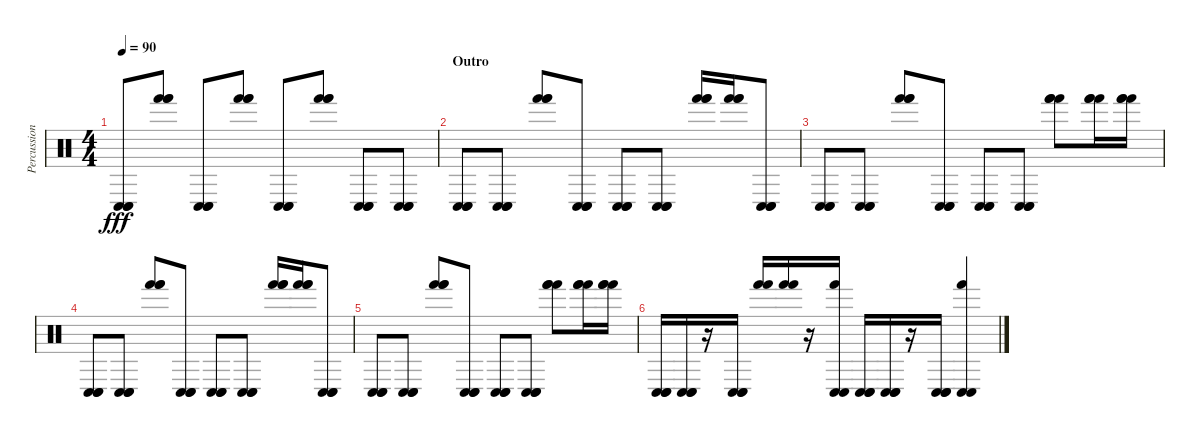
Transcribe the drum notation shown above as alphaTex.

\track ("Percussion" "Percussion") {instrument percussion}
\staff {score}
\articulation defaults
\ts (4 4)
\tempo 90
\clef neutral
\ks c
("Conga low (hit)" "Conga low (hit)" "Conga low (hit)").8{dy fff} ("Hand (hit)" "Hand (hit)" "Hand (hit)").8 ("Conga low (hit)" "Conga low (hit)" "Conga low (hit)").8 ("Hand (hit)" "Hand (hit)" "Hand (hit)").8 ("Conga low (hit)" "Conga low (hit)" "Conga low (hit)").8 ("Hand (hit)" "Hand (hit)" "Hand (hit)").8 ("Conga low (hit)" "Conga low (hit)" "Conga low (hit)").8 ("Conga low (hit)" "Conga low (hit)" "Conga low (hit)").8 |
\section ("" "Outro")
("Conga low (hit)" "Conga low (hit)" "Conga low (hit)").8 ("Conga low (hit)" "Conga low (hit)" "Conga low (hit)").8 ("Hand (hit)" "Hand (hit)" "Hand (hit)").8 ("Conga low (hit)" "Conga low (hit)" "Conga low (hit)").8 ("Conga low (hit)" "Conga low (hit)" "Conga low (hit)").8 ("Conga low (hit)" "Conga low (hit)" "Conga low (hit)").8 ("Hand (hit)" "Hand (hit)" "Hand (hit)").16 ("Hand (hit)" "Hand (hit)" "Hand (hit)").16 ("Conga low (hit)" "Conga low (hit)" "Conga low (hit)").8 |
("Conga low (hit)" "Conga low (hit)" "Conga low (hit)").8 ("Conga low (hit)" "Conga low (hit)" "Conga low (hit)").8 ("Hand (hit)" "Hand (hit)" "Hand (hit)").8 ("Conga low (hit)" "Conga low (hit)" "Conga low (hit)").8 ("Conga low (hit)" "Conga low (hit)" "Conga low (hit)").8 ("Conga low (hit)" "Conga low (hit)" "Conga low (hit)").8 ("Hand (hit)" "Hand (hit)" "Hand (hit)").8 ("Hand (hit)" "Hand (hit)" "Hand (hit)").16 ("Hand (hit)" "Hand (hit)" "Hand (hit)").16 |
("Conga low (hit)" "Conga low (hit)" "Conga low (hit)").8 ("Conga low (hit)" "Conga low (hit)" "Conga low (hit)").8 ("Hand (hit)" "Hand (hit)" "Hand (hit)").8 ("Conga low (hit)" "Conga low (hit)" "Conga low (hit)").8 ("Conga low (hit)" "Conga low (hit)" "Conga low (hit)").8 ("Conga low (hit)" "Conga low (hit)" "Conga low (hit)").8 ("Hand (hit)" "Hand (hit)" "Hand (hit)").16 ("Hand (hit)" "Hand (hit)" "Hand (hit)").16 ("Conga low (hit)" "Conga low (hit)" "Conga low (hit)").8 |
("Conga low (hit)" "Conga low (hit)" "Conga low (hit)").8 ("Conga low (hit)" "Conga low (hit)" "Conga low (hit)").8 ("Hand (hit)" "Hand (hit)" "Hand (hit)").8 ("Conga low (hit)" "Conga low (hit)" "Conga low (hit)").8 ("Conga low (hit)" "Conga low (hit)" "Conga low (hit)").8 ("Conga low (hit)" "Conga low (hit)" "Conga low (hit)").8 ("Hand (hit)" "Hand (hit)" "Hand (hit)").8 ("Hand (hit)" "Hand (hit)" "Hand (hit)").16 ("Hand (hit)" "Hand (hit)" "Hand (hit)").16 |
("Conga low (hit)" "Conga low (hit)" "Conga low (hit)").16 ("Conga low (hit)" "Conga low (hit)" "Conga low (hit)").16 r.16 ("Conga low (hit)" "Conga low (hit)" "Conga low (hit)").16 ("Hand (hit)" "Hand (hit)").16 ("Hand (hit)" "Hand (hit)").16 r.16 ("Hand (hit)" "Conga low (hit)" "Conga low (hit)").16 ("Conga low (hit)" "Conga low (hit)" "Conga low (hit)").16 ("Conga low (hit)" "Conga low (hit)" "Conga low (hit)").16 r.16 ("Conga low (hit)" "Conga low (hit)" "Conga low (hit)").16 ("Hand (hit)" "Conga low (hit)" "Conga low (hit)").4
